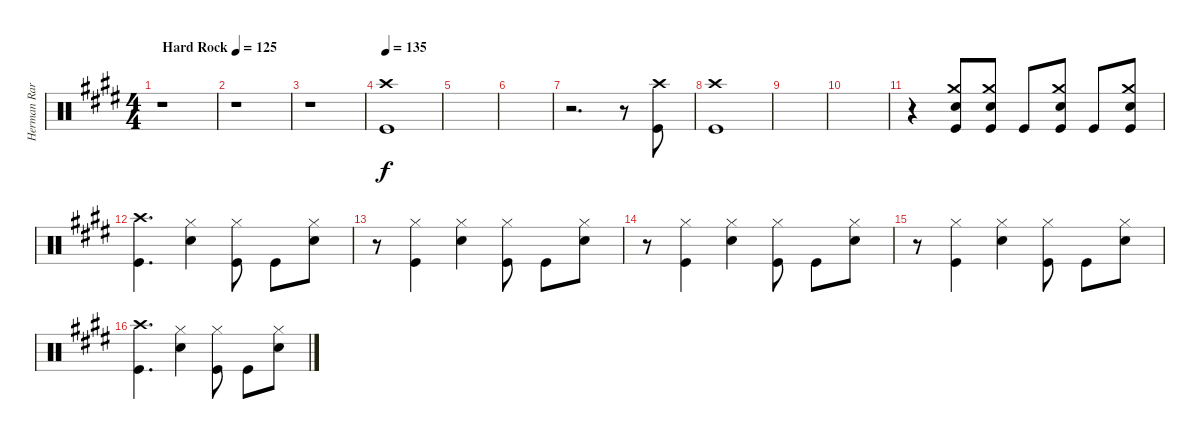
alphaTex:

\track ("Herman Rarebell Drums" "Herman Rar") {instrument percussion}
\staff {score}
\articulation defaults
\ts (4 4)
\tempo (125 "Hard Rock")
\clef neutral
\ks e
r.1{dy f} |
r.1 |
r.1 |
\tempo 135
("Crash high (hit)" "Kick (hit)").1 |
|
|
r.2{d} r.8 ("Crash high (hit)" "Kick (hit)").8 |
("Crash high (hit)" "Kick (hit)").1 |
|
|
r.4 ("Crash medium (hit)" "Snare (hit) 2" "Kick (hit)").8 ("Crash medium (hit)" "Snare (hit) 2" "Kick (hit)").8 "Kick (hit)".8 ("Crash medium (hit)" "Snare (hit) 2" "Kick (hit)").8 "Kick (hit)".8 ("Crash medium (hit)" "Snare (hit) 2" "Kick (hit)").8 |
("Crash high (hit)" "Kick (hit)").4{d} ("Hi-Hat (closed)" "Snare (hit) 2").4 ("Hi-Hat (closed)" "Kick (hit)").8 "Kick (hit)".8 ("Hi-Hat (closed)" "Snare (hit) 2").8 |
r.8 ("Hi-Hat (closed)" "Kick (hit)").4 ("Hi-Hat (closed)" "Snare (hit) 2").4 ("Hi-Hat (closed)" "Kick (hit)").8 "Kick (hit)".8 ("Hi-Hat (closed)" "Snare (hit) 2").8 |
r.8 ("Hi-Hat (closed)" "Kick (hit)").4 ("Hi-Hat (closed)" "Snare (hit) 2").4 ("Hi-Hat (closed)" "Kick (hit)").8 "Kick (hit)".8 ("Hi-Hat (closed)" "Snare (hit) 2").8 |
r.8 ("Hi-Hat (closed)" "Kick (hit)").4 ("Hi-Hat (closed)" "Snare (hit) 2").4 ("Hi-Hat (closed)" "Kick (hit)").8 "Kick (hit)".8 ("Hi-Hat (closed)" "Snare (hit) 2").8 |
("Crash high (hit)" "Kick (hit)").4{d} ("Hi-Hat (closed)" "Snare (hit) 2").4 ("Hi-Hat (closed)" "Kick (hit)").8 "Kick (hit)".8 ("Hi-Hat (closed)" "Snare (hit) 2").8
